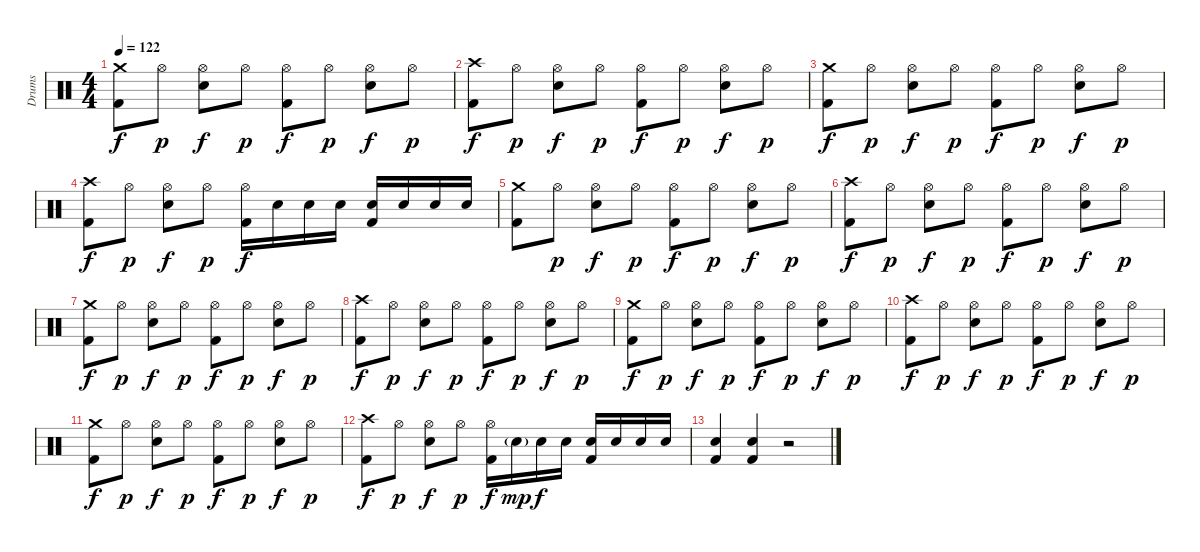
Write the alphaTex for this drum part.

\track ("Drums" "Drums") {instrument percussion}
\staff {score}
\articulation defaults
\ts (4 4)
\tempo 122
\clef neutral
\ks c
("Crash medium (hit)" "Kick (hit) 2").8{dy f} "Hi-Hat (open)".8{dy p} ("Hi-Hat (open)" "Electric Snare (hit)").8{dy f} "Hi-Hat (open)".8{dy p} ("Hi-Hat (open)" "Kick (hit) 2").8{dy f} "Hi-Hat (open)".8{dy p} ("Hi-Hat (open)" "Electric Snare (hit)").8{dy f} "Hi-Hat (open)".8{dy p} |
("Crash high (hit)" "Kick (hit) 2").8{dy f} "Hi-Hat (open)".8{dy p} ("Hi-Hat (open)" "Electric Snare (hit)").8{dy f} "Hi-Hat (open)".8{dy p} ("Hi-Hat (open)" "Kick (hit) 2").8{dy f} "Hi-Hat (open)".8{dy p} ("Hi-Hat (open)" "Electric Snare (hit)").8{dy f} "Hi-Hat (open)".8{dy p} |
("Crash medium (hit)" "Kick (hit) 2").8{dy f} "Hi-Hat (open)".8{dy p} ("Hi-Hat (open)" "Electric Snare (hit)").8{dy f} "Hi-Hat (open)".8{dy p} ("Hi-Hat (open)" "Kick (hit) 2").8{dy f} "Hi-Hat (open)".8{dy p} ("Hi-Hat (open)" "Electric Snare (hit)").8{dy f} "Hi-Hat (open)".8{dy p} |
("Crash high (hit)" "Kick (hit) 2").8{dy f} "Hi-Hat (open)".8{dy p} ("Hi-Hat (open)" "Electric Snare (hit)").8{dy f} "Hi-Hat (open)".8{dy p} ("Hi-Hat (open)" "Kick (hit) 2").16{dy f} "Electric Snare (hit)".16 "Electric Snare (hit)".16 "Electric Snare (hit)".16 ("Electric Snare (hit)" "Kick (hit) 2").16 "Electric Snare (hit)".16 "Electric Snare (hit)".16 "Electric Snare (hit)".16 |
("Crash medium (hit)" "Kick (hit) 2").8 "Hi-Hat (open)".8{dy p} ("Hi-Hat (open)" "Electric Snare (hit)").8{dy f} "Hi-Hat (open)".8{dy p} ("Hi-Hat (open)" "Kick (hit) 2").8{dy f} "Hi-Hat (open)".8{dy p} ("Hi-Hat (open)" "Electric Snare (hit)").8{dy f} "Hi-Hat (open)".8{dy p} |
("Crash high (hit)" "Kick (hit) 2").8{dy f} "Hi-Hat (open)".8{dy p} ("Hi-Hat (open)" "Electric Snare (hit)").8{dy f} "Hi-Hat (open)".8{dy p} ("Hi-Hat (open)" "Kick (hit) 2").8{dy f} "Hi-Hat (open)".8{dy p} ("Hi-Hat (open)" "Electric Snare (hit)").8{dy f} "Hi-Hat (open)".8{dy p} |
("Crash medium (hit)" "Kick (hit) 2").8{dy f} "Hi-Hat (open)".8{dy p} ("Hi-Hat (open)" "Electric Snare (hit)").8{dy f} "Hi-Hat (open)".8{dy p} ("Hi-Hat (open)" "Kick (hit) 2").8{dy f} "Hi-Hat (open)".8{dy p} ("Hi-Hat (open)" "Electric Snare (hit)").8{dy f} "Hi-Hat (open)".8{dy p} |
("Crash high (hit)" "Kick (hit) 2").8{dy f} "Hi-Hat (open)".8{dy p} ("Hi-Hat (open)" "Electric Snare (hit)").8{dy f} "Hi-Hat (open)".8{dy p} ("Hi-Hat (open)" "Kick (hit) 2").8{dy f} "Hi-Hat (open)".8{dy p} ("Hi-Hat (open)" "Electric Snare (hit)").8{dy f} "Hi-Hat (open)".8{dy p} |
("Crash medium (hit)" "Kick (hit) 2").8{dy f} "Hi-Hat (open)".8{dy p} ("Hi-Hat (open)" "Electric Snare (hit)").8{dy f} "Hi-Hat (open)".8{dy p} ("Hi-Hat (open)" "Kick (hit) 2").8{dy f} "Hi-Hat (open)".8{dy p} ("Hi-Hat (open)" "Electric Snare (hit)").8{dy f} "Hi-Hat (open)".8{dy p} |
("Crash high (hit)" "Kick (hit) 2").8{dy f} "Hi-Hat (open)".8{dy p} ("Hi-Hat (open)" "Electric Snare (hit)").8{dy f} "Hi-Hat (open)".8{dy p} ("Hi-Hat (open)" "Kick (hit) 2").8{dy f} "Hi-Hat (open)".8{dy p} ("Hi-Hat (open)" "Electric Snare (hit)").8{dy f} "Hi-Hat (open)".8{dy p} |
("Crash medium (hit)" "Kick (hit) 2").8{dy f} "Hi-Hat (open)".8{dy p} ("Hi-Hat (open)" "Electric Snare (hit)").8{dy f} "Hi-Hat (open)".8{dy p} ("Hi-Hat (open)" "Kick (hit) 2").8{dy f} "Hi-Hat (open)".8{dy p} ("Hi-Hat (open)" "Electric Snare (hit)").8{dy f} "Hi-Hat (open)".8{dy p} |
("Crash high (hit)" "Kick (hit) 2").8{dy f} "Hi-Hat (open)".8{dy p} ("Hi-Hat (open)" "Electric Snare (hit)").8{dy f} "Hi-Hat (open)".8{dy p} ("Hi-Hat (open)" "Kick (hit) 2").16{dy f} "Electric Snare (hit)"{g}.16{dy mp} "Electric Snare (hit)".16{dy f} "Electric Snare (hit)".16 ("Electric Snare (hit)" "Kick (hit) 2").16 "Electric Snare (hit)".16 "Electric Snare (hit)".16 "Electric Snare (hit)".16 |
("Electric Snare (hit)" "Kick (hit) 2").4 ("Electric Snare (hit)" "Kick (hit) 2").4 r.2
